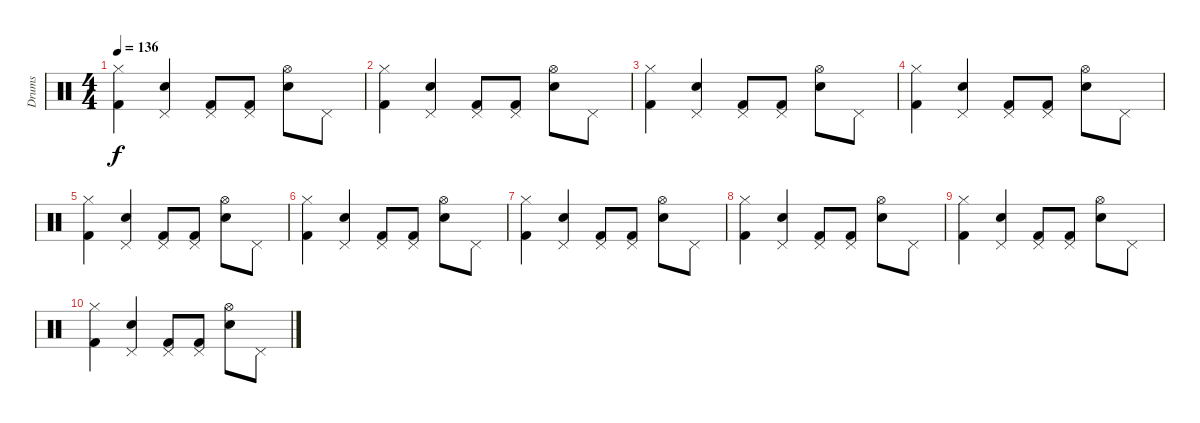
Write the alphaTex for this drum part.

\track ("Drums" "Drums") {instrument percussion}
\staff {score}
\articulation defaults
\ts (4 4)
\tempo 136
\clef neutral
\ks c
("Hi-Hat (closed)" "Kick (hit) 2").4{dy f} ("Snare (hit) 2" "Pedal Hi-Hat (hit)").4 ("Pedal Hi-Hat (hit)" "Kick (hit) 2").8 ("Pedal Hi-Hat (hit)" "Kick (hit) 2").8 ("Snare (hit) 2" "Hi-Hat (open)").8 "Pedal Hi-Hat (hit)".8 |
("Hi-Hat (closed)" "Kick (hit) 2").4 ("Snare (hit) 2" "Pedal Hi-Hat (hit)").4 ("Pedal Hi-Hat (hit)" "Kick (hit) 2").8 ("Pedal Hi-Hat (hit)" "Kick (hit) 2").8 ("Snare (hit) 2" "Hi-Hat (open)").8 "Pedal Hi-Hat (hit)".8 |
("Hi-Hat (closed)" "Kick (hit) 2").4 ("Snare (hit) 2" "Pedal Hi-Hat (hit)").4 ("Pedal Hi-Hat (hit)" "Kick (hit) 2").8 ("Pedal Hi-Hat (hit)" "Kick (hit) 2").8 ("Snare (hit) 2" "Hi-Hat (open)").8 "Pedal Hi-Hat (hit)".8 |
("Hi-Hat (closed)" "Kick (hit) 2").4 ("Snare (hit) 2" "Pedal Hi-Hat (hit)").4 ("Pedal Hi-Hat (hit)" "Kick (hit) 2").8 ("Pedal Hi-Hat (hit)" "Kick (hit) 2").8 ("Snare (hit) 2" "Hi-Hat (open)").8 "Pedal Hi-Hat (hit)".8 |
("Hi-Hat (closed)" "Kick (hit) 2").4 ("Snare (hit) 2" "Pedal Hi-Hat (hit)").4 ("Pedal Hi-Hat (hit)" "Kick (hit) 2").8 ("Pedal Hi-Hat (hit)" "Kick (hit) 2").8 ("Snare (hit) 2" "Hi-Hat (open)").8 "Pedal Hi-Hat (hit)".8 |
("Hi-Hat (closed)" "Kick (hit) 2").4 ("Snare (hit) 2" "Pedal Hi-Hat (hit)").4 ("Pedal Hi-Hat (hit)" "Kick (hit) 2").8 ("Pedal Hi-Hat (hit)" "Kick (hit) 2").8 ("Snare (hit) 2" "Hi-Hat (open)").8 "Pedal Hi-Hat (hit)".8 |
("Hi-Hat (closed)" "Kick (hit) 2").4 ("Snare (hit) 2" "Pedal Hi-Hat (hit)").4 ("Pedal Hi-Hat (hit)" "Kick (hit) 2").8 ("Pedal Hi-Hat (hit)" "Kick (hit) 2").8 ("Snare (hit) 2" "Hi-Hat (open)").8 "Pedal Hi-Hat (hit)".8 |
("Hi-Hat (closed)" "Kick (hit) 2").4 ("Snare (hit) 2" "Pedal Hi-Hat (hit)").4 ("Pedal Hi-Hat (hit)" "Kick (hit) 2").8 ("Pedal Hi-Hat (hit)" "Kick (hit) 2").8 ("Snare (hit) 2" "Hi-Hat (open)").8 "Pedal Hi-Hat (hit)".8 |
("Hi-Hat (closed)" "Kick (hit) 2").4 ("Snare (hit) 2" "Pedal Hi-Hat (hit)").4 ("Pedal Hi-Hat (hit)" "Kick (hit) 2").8 ("Pedal Hi-Hat (hit)" "Kick (hit) 2").8 ("Snare (hit) 2" "Hi-Hat (open)").8 "Pedal Hi-Hat (hit)".8 |
("Hi-Hat (closed)" "Kick (hit) 2").4 ("Snare (hit) 2" "Pedal Hi-Hat (hit)").4 ("Pedal Hi-Hat (hit)" "Kick (hit) 2").8 ("Pedal Hi-Hat (hit)" "Kick (hit) 2").8 ("Snare (hit) 2" "Hi-Hat (open)").8 "Pedal Hi-Hat (hit)".8
